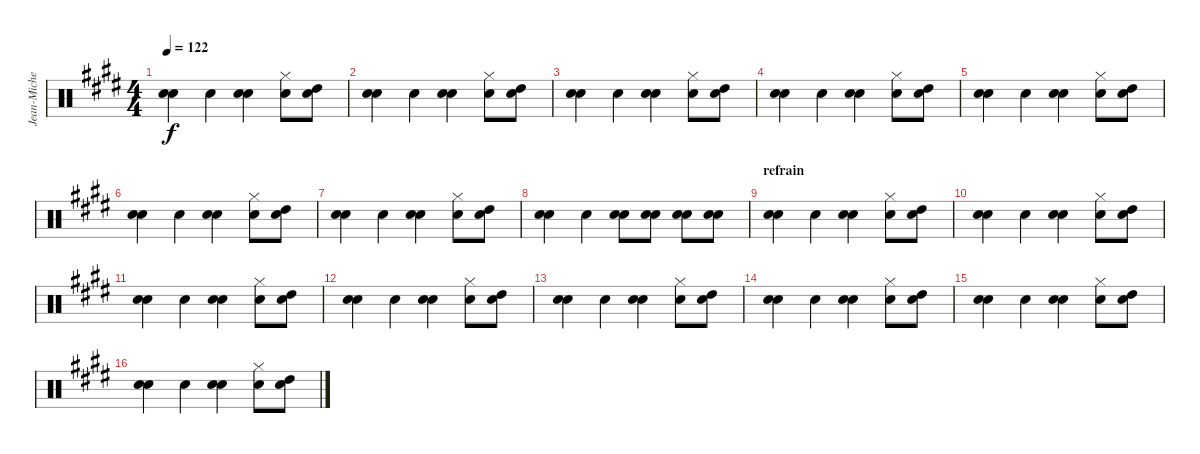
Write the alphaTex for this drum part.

\track ("Jean-Michel Truong (Batterie)" "Jean-Miche") {instrument percussion}
\staff {score}
\articulation defaults
\ts (4 4)
\tempo 122
\clef neutral
\ks e
("Snare (hit) 2" "Electric Snare (hit)").4{dy f} "Electric Snare (hit)".4 ("Snare (hit) 2" "Electric Snare (hit)").4 ("Electric Snare (hit)" "Hi-Hat (closed)").8 ("Electric Snare (hit)" "High Tom (hit)").8 |
("Snare (hit) 2" "Electric Snare (hit)").4 "Electric Snare (hit)".4 ("Snare (hit) 2" "Electric Snare (hit)").4 ("Electric Snare (hit)" "Hi-Hat (closed)").8 ("Electric Snare (hit)" "High Tom (hit)").8 |
("Snare (hit) 2" "Electric Snare (hit)").4 "Electric Snare (hit)".4 ("Snare (hit) 2" "Electric Snare (hit)").4 ("Electric Snare (hit)" "Hi-Hat (closed)").8 ("Electric Snare (hit)" "High Tom (hit)").8 |
("Snare (hit) 2" "Electric Snare (hit)").4 "Electric Snare (hit)".4 ("Snare (hit) 2" "Electric Snare (hit)").4 ("Electric Snare (hit)" "Hi-Hat (closed)").8 ("Electric Snare (hit)" "High Tom (hit)").8 |
("Snare (hit) 2" "Electric Snare (hit)").4 "Electric Snare (hit)".4 ("Snare (hit) 2" "Electric Snare (hit)").4 ("Electric Snare (hit)" "Hi-Hat (closed)").8 ("Electric Snare (hit)" "High Tom (hit)").8 |
("Snare (hit) 2" "Electric Snare (hit)").4 "Electric Snare (hit)".4 ("Snare (hit) 2" "Electric Snare (hit)").4 ("Electric Snare (hit)" "Hi-Hat (closed)").8 ("Electric Snare (hit)" "High Tom (hit)").8 |
("Snare (hit) 2" "Electric Snare (hit)").4 "Electric Snare (hit)".4 ("Snare (hit) 2" "Electric Snare (hit)").4 ("Electric Snare (hit)" "Hi-Hat (closed)").8 ("Electric Snare (hit)" "High Tom (hit)").8 |
("Snare (hit) 2" "Electric Snare (hit)").4 "Electric Snare (hit)".4 ("Snare (hit) 2" "Electric Snare (hit)").8 ("Snare (hit) 2" "Electric Snare (hit)").8 ("Snare (hit) 2" "Electric Snare (hit)").8 ("Snare (hit) 2" "Electric Snare (hit)").8 |
\section ("" "refrain")
("Snare (hit) 2" "Electric Snare (hit)").4 "Electric Snare (hit)".4 ("Snare (hit) 2" "Electric Snare (hit)").4 ("Electric Snare (hit)" "Hi-Hat (closed)").8 ("Electric Snare (hit)" "High Tom (hit)").8 |
("Snare (hit) 2" "Electric Snare (hit)").4 "Electric Snare (hit)".4 ("Snare (hit) 2" "Electric Snare (hit)").4 ("Electric Snare (hit)" "Hi-Hat (closed)").8 ("Electric Snare (hit)" "High Tom (hit)").8 |
("Snare (hit) 2" "Electric Snare (hit)").4 "Electric Snare (hit)".4 ("Snare (hit) 2" "Electric Snare (hit)").4 ("Electric Snare (hit)" "Hi-Hat (closed)").8 ("Electric Snare (hit)" "High Tom (hit)").8 |
("Snare (hit) 2" "Electric Snare (hit)").4 "Electric Snare (hit)".4 ("Snare (hit) 2" "Electric Snare (hit)").4 ("Electric Snare (hit)" "Hi-Hat (closed)").8 ("Electric Snare (hit)" "High Tom (hit)").8 |
("Snare (hit) 2" "Electric Snare (hit)").4 "Electric Snare (hit)".4 ("Snare (hit) 2" "Electric Snare (hit)").4 ("Electric Snare (hit)" "Hi-Hat (closed)").8 ("Electric Snare (hit)" "High Tom (hit)").8 |
("Snare (hit) 2" "Electric Snare (hit)").4 "Electric Snare (hit)".4 ("Snare (hit) 2" "Electric Snare (hit)").4 ("Electric Snare (hit)" "Hi-Hat (closed)").8 ("Electric Snare (hit)" "High Tom (hit)").8 |
("Snare (hit) 2" "Electric Snare (hit)").4 "Electric Snare (hit)".4 ("Snare (hit) 2" "Electric Snare (hit)").4 ("Electric Snare (hit)" "Hi-Hat (closed)").8 ("Electric Snare (hit)" "High Tom (hit)").8 |
("Snare (hit) 2" "Electric Snare (hit)").4 "Electric Snare (hit)".4 ("Snare (hit) 2" "Electric Snare (hit)").4 ("Electric Snare (hit)" "Hi-Hat (closed)").8 ("Electric Snare (hit)" "High Tom (hit)").8
